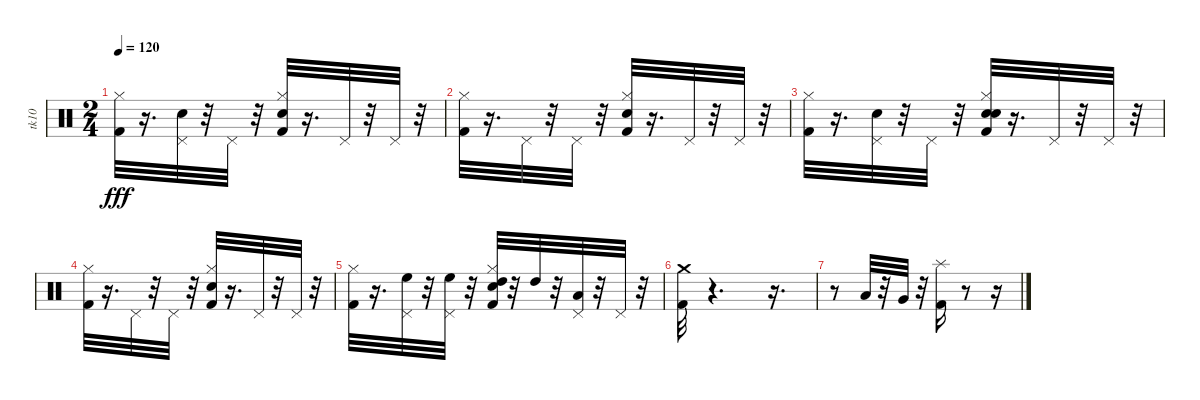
\track ("tk10" "tk10") {instrument percussion}
\staff {score}
\articulation defaults
\ts (2 4)
\tempo 120
\clef neutral
\ks c
("Kick (hit) 2" "Hi-Hat (closed)").32{dy fff} r.16{d} ("Pedal Hi-Hat (hit)" "Hand Clap (hit)").32 r.32 "Pedal Hi-Hat (hit)".32 r.32 ("Snare (hit) 2" "Kick (hit) 2" "Hi-Hat (closed)").32 r.16{d} "Pedal Hi-Hat (hit)".32 r.32 "Pedal Hi-Hat (hit)".32 r.32 |
("Kick (hit) 2" "Hi-Hat (closed)").32 r.16{d} "Pedal Hi-Hat (hit)".32 r.32 "Pedal Hi-Hat (hit)".32 r.32 ("Snare (hit) 2" "Kick (hit) 2" "Hi-Hat (closed)").32 r.16{d} "Pedal Hi-Hat (hit)".32 r.32 "Pedal Hi-Hat (hit)".32 r.32 |
("Kick (hit) 2" "Hi-Hat (closed)").32 r.16{d} ("Hand Clap (hit)" "Pedal Hi-Hat (hit)").32 r.32 "Pedal Hi-Hat (hit)".32 r.32 ("Snare (hit) 2" "Kick (hit) 2" "Hand Clap (hit)" "Hi-Hat (closed)").32 r.16{d} "Pedal Hi-Hat (hit)".32 r.32 "Pedal Hi-Hat (hit)".32 r.32 |
("Kick (hit) 2" "Hi-Hat (closed)").32 r.16{d} "Pedal Hi-Hat (hit)".32 r.32 "Pedal Hi-Hat (hit)".32 r.32 ("Kick (hit) 2" "Snare (hit) 2" "Hi-Hat (closed)").32 r.16{d} "Pedal Hi-Hat (hit)".32 r.32 "Pedal Hi-Hat (hit)".32 r.32 |
("Kick (hit) 2" "Hi-Hat (closed)").32 r.16{d} ("High Floor Tom (hit)" "Pedal Hi-Hat (hit)").32 r.32 ("High Floor Tom (hit)" "Pedal Hi-Hat (hit)").32 r.32 ("Kick (hit) 2" "Snare (hit) 2" "High Tom (hit)" "Hi-Hat (closed)").32 r.32 "High Tom (hit)".32 r.32 ("Low Tom (hit)" "Pedal Hi-Hat (hit)").32 r.32 "Pedal Hi-Hat (hit)".32 r.32 |
("Kick (hit) 2" "Crash medium (hit)").32 r.4{d} r.16{d} |
r.8 "Low Tom (hit)".32 r.32 "Very Low Tom (hit)".32 r.32 ("Kick (hit) 2" "Splash (hit)").16 r.8 r.16
